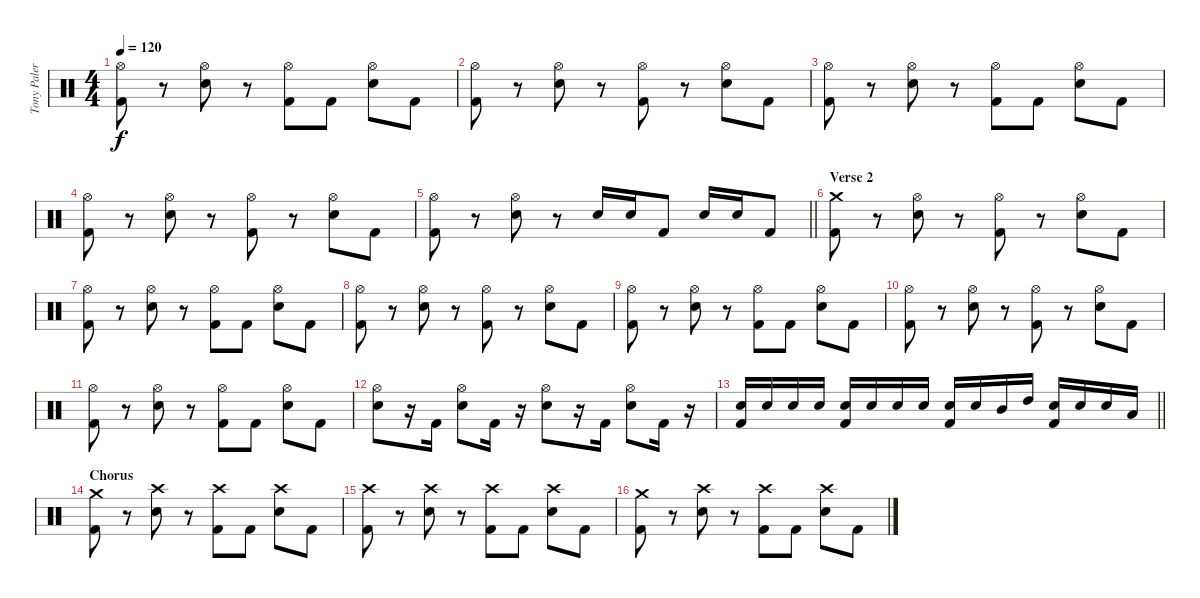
\track ("Tony Palermo " "Tony Paler") {instrument percussion}
\staff {score}
\articulation defaults
\ts (4 4)
\tempo 120
\clef neutral
\ks c
("Hi-Hat (open)" "Kick (hit) 2").8{dy f} r.8 ("Hi-Hat (open)" "Snare (hit) 2").8 r.8 ("Hi-Hat (open)" "Kick (hit) 2").8 "Kick (hit) 2".8 ("Hi-Hat (open)" "Snare (hit) 2").8 "Kick (hit) 2".8 |
("Hi-Hat (open)" "Kick (hit) 2").8 r.8 ("Hi-Hat (open)" "Snare (hit) 2").8 r.8 ("Hi-Hat (open)" "Kick (hit) 2").8 r.8 ("Hi-Hat (open)" "Snare (hit) 2").8 "Kick (hit) 2".8 |
("Hi-Hat (open)" "Kick (hit) 2").8 r.8 ("Hi-Hat (open)" "Snare (hit) 2").8 r.8 ("Hi-Hat (open)" "Kick (hit) 2").8 "Kick (hit) 2".8 ("Hi-Hat (open)" "Snare (hit) 2").8 "Kick (hit) 2".8 |
("Hi-Hat (open)" "Kick (hit) 2").8 r.8 ("Hi-Hat (open)" "Snare (hit) 2").8 r.8 ("Hi-Hat (open)" "Kick (hit) 2").8 r.8 ("Hi-Hat (open)" "Snare (hit) 2").8 "Kick (hit) 2".8 |
\barLineRight lightlight
("Hi-Hat (open)" "Kick (hit) 2").8 r.8 ("Hi-Hat (open)" "Snare (hit) 2").8 r.8 "Snare (hit) 2".16 "Snare (hit) 2".16 "Kick (hit) 2".8 "Snare (hit) 2".16 "Snare (hit) 2".16 "Kick (hit) 2".8 |
\section ("" "Verse 2")
("Crash medium (hit)" "Kick (hit) 2").8 r.8 ("Hi-Hat (open)" "Snare (hit) 2").8 r.8 ("Hi-Hat (open)" "Kick (hit) 2").8 r.8 ("Hi-Hat (open)" "Snare (hit) 2").8 "Kick (hit) 2".8 |
("Hi-Hat (open)" "Kick (hit) 2").8 r.8 ("Hi-Hat (open)" "Snare (hit) 2").8 r.8 ("Hi-Hat (open)" "Kick (hit) 2").8 "Kick (hit) 2".8 ("Hi-Hat (open)" "Snare (hit) 2").8 "Kick (hit) 2".8 |
("Hi-Hat (open)" "Kick (hit) 2").8 r.8 ("Hi-Hat (open)" "Snare (hit) 2").8 r.8 ("Hi-Hat (open)" "Kick (hit) 2").8 r.8 ("Hi-Hat (open)" "Snare (hit) 2").8 "Kick (hit) 2".8 |
("Hi-Hat (open)" "Kick (hit) 2").8 r.8 ("Hi-Hat (open)" "Snare (hit) 2").8 r.8 ("Hi-Hat (open)" "Kick (hit) 2").8 "Kick (hit) 2".8 ("Hi-Hat (open)" "Snare (hit) 2").8 "Kick (hit) 2".8 |
("Hi-Hat (open)" "Kick (hit) 2").8 r.8 ("Hi-Hat (open)" "Snare (hit) 2").8 r.8 ("Hi-Hat (open)" "Kick (hit) 2").8 r.8 ("Hi-Hat (open)" "Snare (hit) 2").8 "Kick (hit) 2".8 |
("Hi-Hat (open)" "Kick (hit) 2").8 r.8 ("Hi-Hat (open)" "Snare (hit) 2").8 r.8 ("Hi-Hat (open)" "Kick (hit) 2").8 "Kick (hit) 2".8 ("Hi-Hat (open)" "Snare (hit) 2").8 "Kick (hit) 2".8 |
("Hi-Hat (open)" "Snare (hit) 2").8 r.16 "Kick (hit) 2".16 ("Hi-Hat (open)" "Snare (hit) 2").8 "Kick (hit) 2".16 r.16 ("Hi-Hat (open)" "Snare (hit) 2").8 r.16 "Kick (hit) 2".16 ("Hi-Hat (open)" "Snare (hit) 2").8 "Kick (hit) 2".16 r.16 |
\barLineRight lightlight
("Kick (hit) 2" "Snare (hit) 2").16 "Snare (hit) 2".16 "Snare (hit) 2".16 "Snare (hit) 2".16 ("Kick (hit) 2" "Snare (hit) 2").16 "Snare (hit) 2".16 "Snare (hit) 2".16 "Snare (hit) 2".16 ("Kick (hit) 2" "Snare (hit) 2").16 "Snare (hit) 2".16 "Mid Tom (hit)".16 "High Tom (hit)".16 ("Kick (hit) 2" "Snare (hit) 2").16 "Snare (hit) 2".16 "Snare (hit) 2".16 "Low Tom (hit)".16 |
\section ("" "Chorus")
("Crash medium (hit)" "Kick (hit) 2").8 r.8 ("Crash high (hit)" "Snare (hit) 2").8 r.8 ("Crash high (hit)" "Kick (hit) 2").8 "Kick (hit) 2".8 ("Crash high (hit)" "Snare (hit) 2").8 "Kick (hit) 2".8 |
("Crash high (hit)" "Kick (hit) 2").8 r.8 ("Crash high (hit)" "Snare (hit) 2").8 r.8 ("Crash high (hit)" "Kick (hit) 2").8 "Kick (hit) 2".8 ("Crash high (hit)" "Snare (hit) 2").8 "Kick (hit) 2".8 |
("Crash medium (hit)" "Kick (hit) 2").8 r.8 ("Crash high (hit)" "Snare (hit) 2").8 r.8 ("Crash high (hit)" "Kick (hit) 2").8 "Kick (hit) 2".8 ("Crash high (hit)" "Snare (hit) 2").8 "Kick (hit) 2".8
